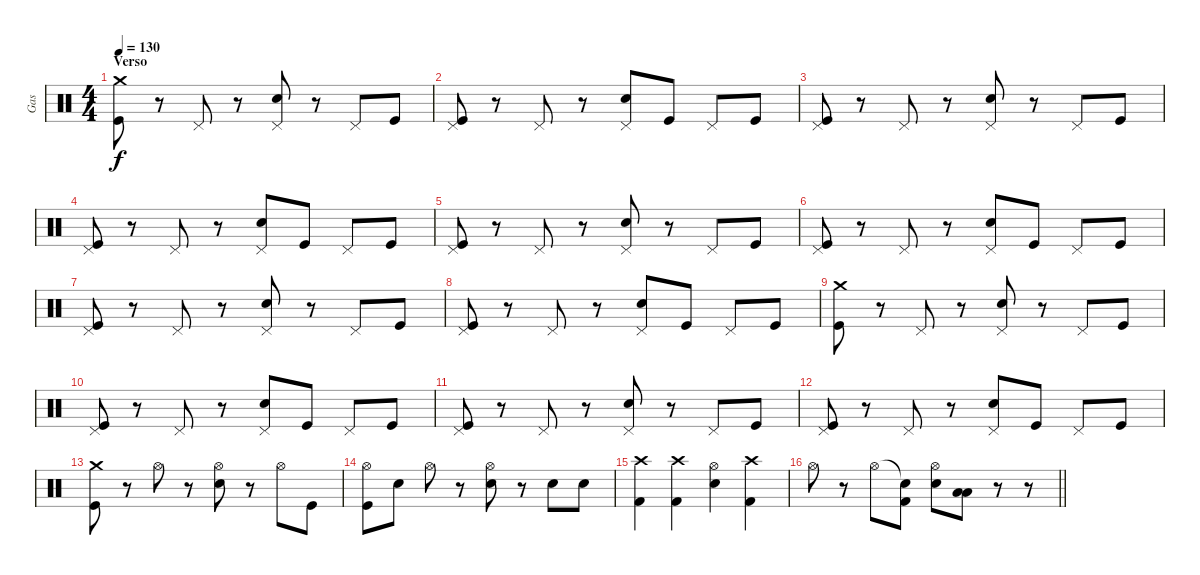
\track ("Gas" "Gas") {instrument percussion}
\staff {score}
\articulation defaults
\ts (4 4)
\section ("" "Verso")
\tempo 130
\clef neutral
\ks c
("Kick (hit)" "Crash medium (hit)").8{dy f} r.8 "Pedal Hi-Hat (hit)".8 r.8 ("Pedal Hi-Hat (hit)" "Electric Snare (hit)").8 r.8 "Pedal Hi-Hat (hit)".8 "Kick (hit)".8 |
("Pedal Hi-Hat (hit)" "Kick (hit)").8 r.8 "Pedal Hi-Hat (hit)".8 r.8 ("Pedal Hi-Hat (hit)" "Electric Snare (hit)").8 "Kick (hit)".8 "Pedal Hi-Hat (hit)".8 "Kick (hit)".8 |
("Pedal Hi-Hat (hit)" "Kick (hit)").8 r.8 "Pedal Hi-Hat (hit)".8 r.8 ("Pedal Hi-Hat (hit)" "Electric Snare (hit)").8 r.8 "Pedal Hi-Hat (hit)".8 "Kick (hit)".8 |
("Pedal Hi-Hat (hit)" "Kick (hit)").8 r.8 "Pedal Hi-Hat (hit)".8 r.8 ("Pedal Hi-Hat (hit)" "Electric Snare (hit)").8 "Kick (hit)".8 "Pedal Hi-Hat (hit)".8 "Kick (hit)".8 |
("Pedal Hi-Hat (hit)" "Kick (hit)").8 r.8 "Pedal Hi-Hat (hit)".8 r.8 ("Pedal Hi-Hat (hit)" "Electric Snare (hit)").8 r.8 "Pedal Hi-Hat (hit)".8 "Kick (hit)".8 |
("Pedal Hi-Hat (hit)" "Kick (hit)").8 r.8 "Pedal Hi-Hat (hit)".8 r.8 ("Pedal Hi-Hat (hit)" "Electric Snare (hit)").8 "Kick (hit)".8 "Pedal Hi-Hat (hit)".8 "Kick (hit)".8 |
("Pedal Hi-Hat (hit)" "Kick (hit)").8 r.8 "Pedal Hi-Hat (hit)".8 r.8 ("Pedal Hi-Hat (hit)" "Electric Snare (hit)").8 r.8 "Pedal Hi-Hat (hit)".8 "Kick (hit)".8 |
("Pedal Hi-Hat (hit)" "Kick (hit)").8 r.8 "Pedal Hi-Hat (hit)".8 r.8 ("Pedal Hi-Hat (hit)" "Electric Snare (hit)").8 "Kick (hit)".8 "Pedal Hi-Hat (hit)".8 "Kick (hit)".8 |
("Kick (hit)" "Crash medium (hit)").8 r.8 "Pedal Hi-Hat (hit)".8 r.8 ("Pedal Hi-Hat (hit)" "Electric Snare (hit)").8 r.8 "Pedal Hi-Hat (hit)".8 "Kick (hit)".8 |
("Pedal Hi-Hat (hit)" "Kick (hit)").8 r.8 "Pedal Hi-Hat (hit)".8 r.8 ("Pedal Hi-Hat (hit)" "Electric Snare (hit)").8 "Kick (hit)".8 "Pedal Hi-Hat (hit)".8 "Kick (hit)".8 |
("Pedal Hi-Hat (hit)" "Kick (hit)").8 r.8 "Pedal Hi-Hat (hit)".8 r.8 ("Pedal Hi-Hat (hit)" "Electric Snare (hit)").8 r.8 "Pedal Hi-Hat (hit)".8 "Kick (hit)".8 |
("Pedal Hi-Hat (hit)" "Kick (hit)").8 r.8 "Pedal Hi-Hat (hit)".8 r.8 ("Pedal Hi-Hat (hit)" "Electric Snare (hit)").8 "Kick (hit)".8 "Pedal Hi-Hat (hit)".8 "Kick (hit)".8 |
("Kick (hit)" "Crash medium (hit)").8 r.8 "Hi-Hat (open)".8 r.8 ("Hi-Hat (open)" "Electric Snare (hit)").8 r.8 "Hi-Hat (open)".8 "Kick (hit)".8 |
("Hi-Hat (open)" "Kick (hit)").8 "Snare (hit)".8 "Hi-Hat (open)".8 r.8 ("Hi-Hat (open)" "Electric Snare (hit)").8 r.8 "Electric Snare (hit)".8 "Electric Snare (hit)".8 |
("Crash high (hit)" "Kick (hit) 2").4 ("Crash high (hit)" "Kick (hit) 2").4 ("Hi-Hat (open)" "Electric Snare (hit)").4 ("Crash high (hit)" "Kick (hit) 2").4 |
\barLineRight lightlight "Hi-Hat (open)".8
r.8 "Hi-Hat (open)".8 ("Snare (hit)"{t} "Kick (hit) 2").8 ("Hi-Hat (open)" "Electric Snare (hit)").8 ("Low Tom (hit)" "Low Tom (hit)").8{bd 60} r.8 r.8
